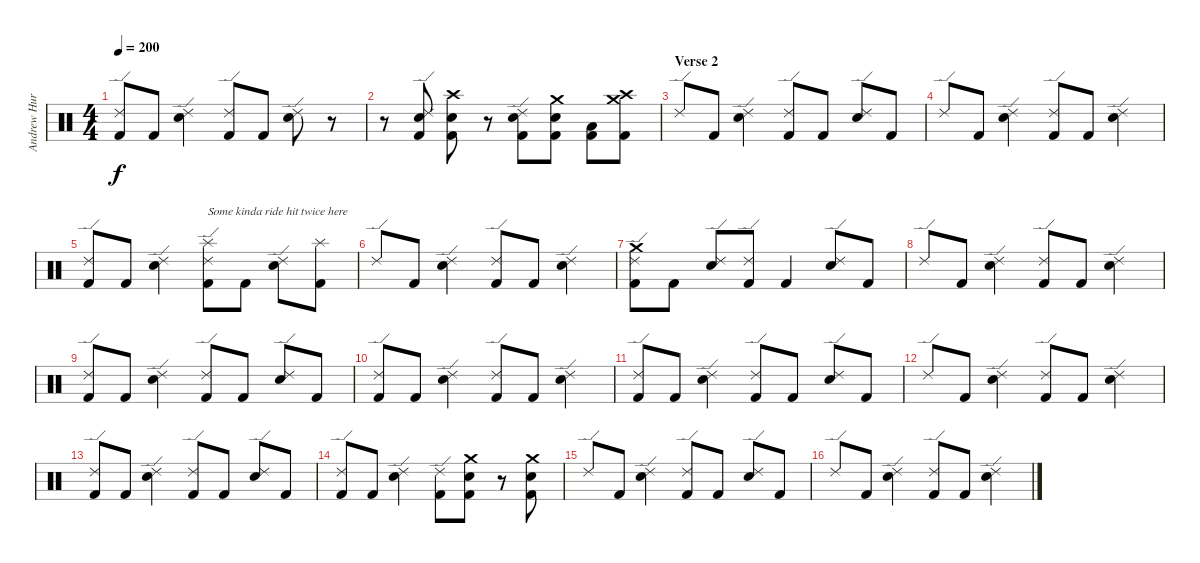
\track ("Andrew Hurley (Drums)" "Andrew Hur") {instrument percussion}
\staff {score}
\articulation defaults
\ts (4 4)
\tempo 200
\clef neutral
\ks c
("Kick (hit) 2" "Ride (edge) 2").8{dy f} "Kick (hit) 2".8 ("Electric Snare (hit)" "Ride (edge) 2").4 ("Kick (hit) 2" "Ride (edge) 2").8 "Kick (hit) 2".8 ("Electric Snare (hit)" "Ride (edge) 2").8 r.8 |
r.8 ("Electric Snare (hit)" "Kick (hit) 2" "Ride (edge) 2").8 ("Electric Snare (hit)" "Kick (hit) 2" "Crash high (hit)").8 r.8 ("Electric Snare (hit)" "Kick (hit) 2" "Ride (edge) 2").8 ("Electric Snare (hit)" "Kick (hit) 2" "Crash medium (hit)").8 ("Kick (hit) 2" "Low Floor Tom (hit)").8 ("Kick (hit) 2" "Crash high (hit)" "Crash medium (hit)").8 |
\section ("" "Verse 2")
"Ride (edge) 2".8 "Kick (hit) 2".8 ("Electric Snare (hit)" "Ride (edge) 2").4 ("Kick (hit) 2" "Ride (edge) 2").8 "Kick (hit) 2".8 ("Electric Snare (hit)" "Ride (edge) 2").8 "Kick (hit) 2".8 |
"Ride (edge) 2".8 "Kick (hit) 2".8 ("Electric Snare (hit)" "Ride (edge) 2").4 ("Kick (hit) 2" "Ride (edge) 2").8 "Kick (hit) 2".8 ("Electric Snare (hit)" "Ride (edge) 2").4 |
("Kick (hit) 2" "Ride (edge) 2").8 "Kick (hit) 2".8 ("Electric Snare (hit)" "Ride (edge) 2").4 ("Kick (hit) 2" "Ride (edge) 2" "Splash (hit)").8{txt "Some kinda ride hit twice here"} "Kick (hit) 2".8 ("Electric Snare (hit)" "Ride (edge) 2").8 ("Kick (hit) 2" "Splash (hit)").8 |
"Ride (edge) 2".8 "Kick (hit) 2".8 ("Electric Snare (hit)" "Ride (edge) 2").4 ("Kick (hit) 2" "Ride (edge) 2").8 "Kick (hit) 2".8 ("Electric Snare (hit)" "Ride (edge) 2").4 |
("Kick (hit) 2" "Ride (edge) 2" "Crash medium (hit)").8 "Kick (hit) 2".8 ("Electric Snare (hit)" "Ride (edge) 2").8 ("Kick (hit) 2" "Ride (edge) 2").8 "Kick (hit) 2".4 ("Electric Snare (hit)" "Ride (edge) 2").8 "Kick (hit) 2".8 |
"Ride (edge) 2".8 "Kick (hit) 2".8 ("Electric Snare (hit)" "Ride (edge) 2").4 ("Kick (hit) 2" "Ride (edge) 2").8 "Kick (hit) 2".8 ("Electric Snare (hit)" "Ride (edge) 2").4 |
("Kick (hit) 2" "Ride (edge) 2").8 "Kick (hit) 2".8 ("Electric Snare (hit)" "Ride (edge) 2").4 ("Kick (hit) 2" "Ride (edge) 2").8 "Kick (hit) 2".8 ("Electric Snare (hit)" "Ride (edge) 2").8 "Kick (hit) 2".8 |
("Kick (hit) 2" "Ride (edge) 2").8 "Kick (hit) 2".8 ("Electric Snare (hit)" "Ride (edge) 2").4 ("Kick (hit) 2" "Ride (edge) 2").8 "Kick (hit) 2".8 ("Electric Snare (hit)" "Ride (edge) 2").4 |
("Kick (hit) 2" "Ride (edge) 2").8 "Kick (hit) 2".8 ("Electric Snare (hit)" "Ride (edge) 2").4 ("Kick (hit) 2" "Ride (edge) 2").8 "Kick (hit) 2".8 ("Electric Snare (hit)" "Ride (edge) 2").8 "Kick (hit) 2".8 |
"Ride (edge) 2".8 "Kick (hit) 2".8 ("Electric Snare (hit)" "Ride (edge) 2").4 ("Kick (hit) 2" "Ride (edge) 2").8 "Kick (hit) 2".8 ("Electric Snare (hit)" "Ride (edge) 2").4 |
("Kick (hit) 2" "Ride (edge) 2").8 "Kick (hit) 2".8 ("Electric Snare (hit)" "Ride (edge) 2").4 ("Kick (hit) 2" "Ride (edge) 2").8 "Kick (hit) 2".8 ("Electric Snare (hit)" "Ride (edge) 2").8 "Kick (hit) 2".8 |
("Kick (hit) 2" "Ride (edge) 2").8 "Kick (hit) 2".8 ("Electric Snare (hit)" "Ride (edge) 2").4 ("Kick (hit) 2" "Ride (edge) 2").8 ("Kick (hit) 2" "Electric Snare (hit)" "Crash medium (hit)").8 r.8 ("Electric Snare (hit)" "Kick (hit) 2" "Crash medium (hit)").8 |
"Ride (edge) 2".8 "Kick (hit) 2".8 ("Electric Snare (hit)" "Ride (edge) 2").4 ("Kick (hit) 2" "Ride (edge) 2").8 "Kick (hit) 2".8 ("Electric Snare (hit)" "Ride (edge) 2").8 "Kick (hit) 2".8 |
"Ride (edge) 2".8 "Kick (hit) 2".8 ("Electric Snare (hit)" "Ride (edge) 2").4 ("Kick (hit) 2" "Ride (edge) 2").8 "Kick (hit) 2".8 ("Electric Snare (hit)" "Ride (edge) 2").4
